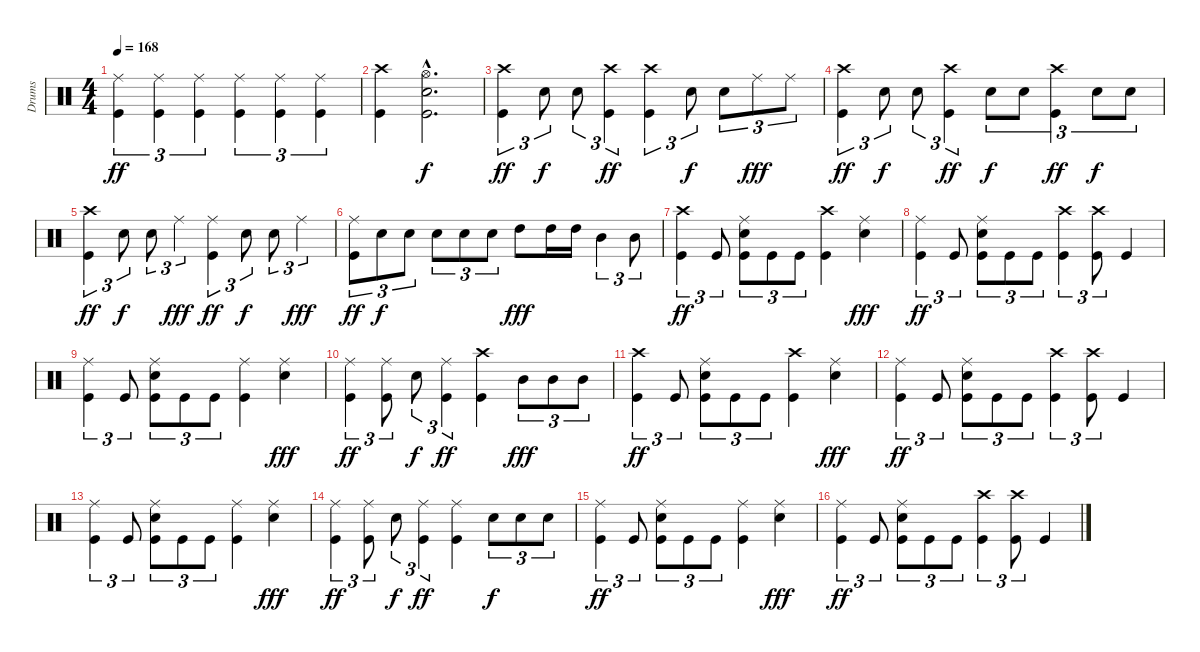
\track ("Drums" "Drums") {instrument percussion}
\staff {score}
\articulation defaults
\ts (4 4)
\tempo 168
\clef neutral
\ks c
("Ride (middle)" "Kick (hit)").4{tu (3 2) dy ff} ("Ride (middle)" "Kick (hit)").4{tu (3 2)} ("Ride (middle)" "Kick (hit)").4{tu (3 2)} ("Ride (middle)" "Kick (hit)").4{tu (3 2)} ("Ride (middle)" "Kick (hit)").4{tu (3 2)} ("Ride (middle)" "Kick (hit)").4{tu (3 2)} |
("Crash high (hit)" "Kick (hit)").4 ("Electric Snare (hit)"{hac} "Kick (hit)"{hac} "Hi-Hat (open)"{hac}).2{d dy f} |
("Crash high (hit)" "Kick (hit)").4{tu (3 2) dy ff} "Electric Snare (hit)".8{tu (3 2) dy f} "Electric Snare (hit)".8{tu (3 2)} ("Crash high (hit)" "Kick (hit)").4{tu (3 2) dy ff} ("Crash high (hit)" "Kick (hit)").4{tu (3 2)} "Electric Snare (hit)".8{tu (3 2) dy f} "Electric Snare (hit)".8{tu (3 2)} "Ride (middle)".8{tu (3 2) dy fff} "Ride (middle)".8{tu (3 2)} |
("Crash high (hit)" "Kick (hit)").4{tu (3 2) dy ff} "Electric Snare (hit)".8{tu (3 2) dy f} "Electric Snare (hit)".8{tu (3 2)} ("Crash high (hit)" "Kick (hit)").4{tu (3 2) dy ff} "Electric Snare (hit)".8{tu (3 2) dy f} "Electric Snare (hit)".8{tu (3 2)} ("Crash high (hit)" "Kick (hit)").4{tu (3 2) dy ff} "Electric Snare (hit)".8{tu (3 2) dy f} "Electric Snare (hit)".8{tu (3 2)} |
("Crash high (hit)" "Kick (hit)").4{tu (3 2) dy ff} "Electric Snare (hit)".8{tu (3 2) dy f} "Electric Snare (hit)".8{tu (3 2)} "Ride (middle)".4{tu (3 2) dy fff} ("Ride (middle)" "Kick (hit)").4{tu (3 2) dy ff} "Electric Snare (hit)".8{tu (3 2) dy f} "Electric Snare (hit)".8{tu (3 2)} "Ride (middle)".4{tu (3 2) dy fff} |
("Ride (middle)" "Kick (hit)").8{tu (3 2) dy ff} "Electric Snare (hit)".8{tu (3 2) dy f} "Electric Snare (hit)".8{tu (3 2)} "Electric Snare (hit)".8{tu (3 2)} "Electric Snare (hit)".8{tu (3 2)} "Electric Snare (hit)".8{tu (3 2)} "High Tom (hit)".8{dy fff} "High Tom (hit)".16 "High Tom (hit)".16 "Mid Tom (hit)".4{tu (3 2)} "Mid Tom (hit)".8{tu (3 2)} |
("Crash high (hit)" "Kick (hit)").4{tu (3 2) dy ff} "Kick (hit)".8{tu (3 2)} ("Ride (middle)" "Electric Snare (hit)" "Kick (hit)").8{tu (3 2)} "Kick (hit)".8{tu (3 2)} "Kick (hit)".8{tu (3 2)} ("Crash high (hit)" "Kick (hit)").4 ("Ride (middle)" "Electric Snare (hit)").4{dy fff} |
("Ride (middle)" "Kick (hit)").4{tu (3 2) dy ff} "Kick (hit)".8{tu (3 2)} ("Ride (middle)" "Electric Snare (hit)" "Kick (hit)").8{tu (3 2)} "Kick (hit)".8{tu (3 2)} "Kick (hit)".8{tu (3 2)} ("Crash high (hit)" "Kick (hit)").4{tu (3 2)} ("Crash high (hit)" "Kick (hit)").8{tu (3 2)} "Kick (hit)".4 |
("Ride (middle)" "Kick (hit)").4{tu (3 2)} "Kick (hit)".8{tu (3 2)} ("Ride (middle)" "Electric Snare (hit)" "Kick (hit)").8{tu (3 2)} "Kick (hit)".8{tu (3 2)} "Kick (hit)".8{tu (3 2)} ("Ride (middle)" "Kick (hit)").4 ("Ride (middle)" "Electric Snare (hit)").4{dy fff} |
("Ride (middle)" "Kick (hit)").4{tu (3 2) dy ff} ("Ride (middle)" "Kick (hit)").8{tu (3 2)} "Electric Snare (hit)".8{tu (3 2) dy f} ("Ride (middle)" "Kick (hit)").4{tu (3 2) dy ff} ("Crash high (hit)" "Kick (hit)").4 "Mid Tom (hit)".8{tu (3 2) dy fff} "Mid Tom (hit)".8{tu (3 2)} "Mid Tom (hit)".8{tu (3 2)} |
("Crash high (hit)" "Kick (hit)").4{tu (3 2) dy ff} "Kick (hit)".8{tu (3 2)} ("Ride (middle)" "Electric Snare (hit)" "Kick (hit)").8{tu (3 2)} "Kick (hit)".8{tu (3 2)} "Kick (hit)".8{tu (3 2)} ("Crash high (hit)" "Kick (hit)").4 ("Ride (middle)" "Electric Snare (hit)").4{dy fff} |
("Ride (middle)" "Kick (hit)").4{tu (3 2) dy ff} "Kick (hit)".8{tu (3 2)} ("Ride (middle)" "Electric Snare (hit)" "Kick (hit)").8{tu (3 2)} "Kick (hit)".8{tu (3 2)} "Kick (hit)".8{tu (3 2)} ("Crash high (hit)" "Kick (hit)").4{tu (3 2)} ("Crash high (hit)" "Kick (hit)").8{tu (3 2)} "Kick (hit)".4 |
("Ride (middle)" "Kick (hit)").4{tu (3 2)} "Kick (hit)".8{tu (3 2)} ("Ride (middle)" "Electric Snare (hit)" "Kick (hit)").8{tu (3 2)} "Kick (hit)".8{tu (3 2)} "Kick (hit)".8{tu (3 2)} ("Ride (middle)" "Kick (hit)").4 ("Ride (middle)" "Electric Snare (hit)").4{dy fff} |
("Ride (middle)" "Kick (hit)").4{tu (3 2) dy ff} ("Ride (middle)" "Kick (hit)").8{tu (3 2)} "Electric Snare (hit)".8{tu (3 2) dy f} ("Ride (middle)" "Kick (hit)").4{tu (3 2) dy ff} ("Ride (middle)" "Kick (hit)").4 "Electric Snare (hit)".8{tu (3 2) dy f} "Electric Snare (hit)".8{tu (3 2)} "Electric Snare (hit)".8{tu (3 2)} |
("Ride (middle)" "Kick (hit)").4{tu (3 2) dy ff} "Kick (hit)".8{tu (3 2)} ("Ride (middle)" "Electric Snare (hit)" "Kick (hit)").8{tu (3 2)} "Kick (hit)".8{tu (3 2)} "Kick (hit)".8{tu (3 2)} ("Ride (middle)" "Kick (hit)").4 ("Ride (middle)" "Electric Snare (hit)").4{dy fff} |
("Ride (middle)" "Kick (hit)").4{tu (3 2) dy ff} "Kick (hit)".8{tu (3 2)} ("Ride (middle)" "Electric Snare (hit)" "Kick (hit)").8{tu (3 2)} "Kick (hit)".8{tu (3 2)} "Kick (hit)".8{tu (3 2)} ("Crash high (hit)" "Kick (hit)").4{tu (3 2)} ("Crash high (hit)" "Kick (hit)").8{tu (3 2)} "Kick (hit)".4
